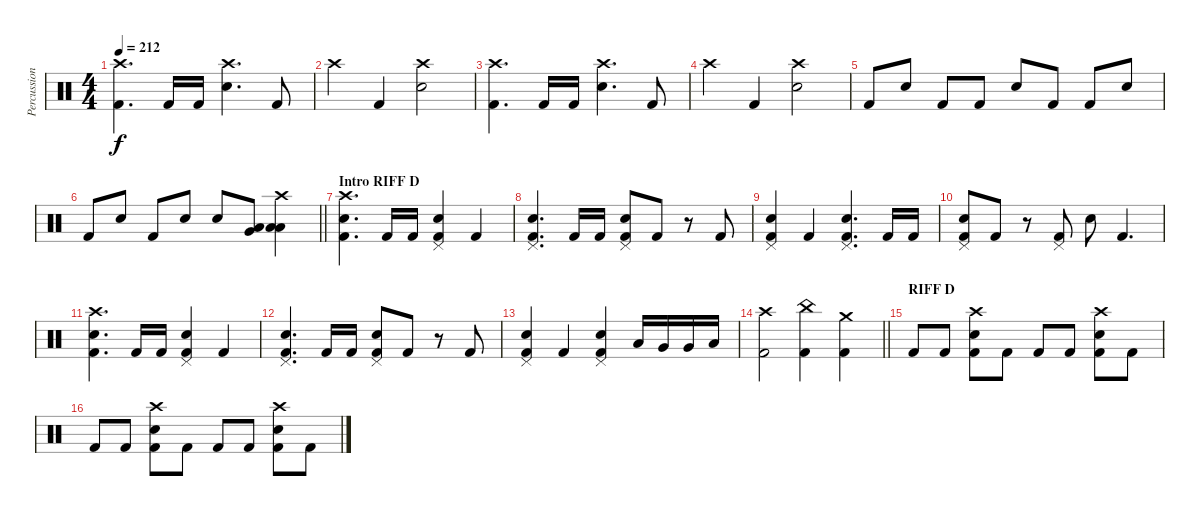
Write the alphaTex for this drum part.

\track ("Percussions" "Percussion") {instrument percussion}
\staff {score}
\articulation defaults
\ts (4 4)
\tempo 212
\clef neutral
\ks c
("Crash high (hit)" "Kick (hit) 2").4{d dy f} "Kick (hit) 2".16 "Kick (hit) 2".16 ("Crash high (hit)" "Snare (hit) 2").4{d} "Kick (hit) 2".8 |
"Crash high (hit)".4 "Kick (hit) 2".4 ("Crash high (hit)" "Snare (hit) 2").2 |
("Crash high (hit)" "Kick (hit) 2").4{d} "Kick (hit) 2".16 "Kick (hit) 2".16 ("Crash high (hit)" "Snare (hit) 2").4{d} "Kick (hit) 2".8 |
"Crash high (hit)".4 "Kick (hit) 2".4 ("Crash high (hit)" "Snare (hit) 2").2 |
"Kick (hit) 2".8 "Snare (hit) 2".8 "Kick (hit) 2".8 "Kick (hit) 2".8 "Snare (hit) 2".8 "Kick (hit) 2".8 "Kick (hit) 2".8 "Snare (hit) 2".8 |
\barLineRight lightlight "Kick (hit) 2".8 "Snare (hit) 2".8 "Kick (hit) 2".8 "Snare (hit) 2".8 "Snare (hit) 2".8
("Low Tom (hit)" "Very Low Tom (hit)").8 ("Crash high (hit)" "Low Floor Tom (hit)" "Low Floor Tom (hit)").4 |
\section ("" "Intro RIFF D")
("Crash high (hit)" "Snare (hit) 2" "Kick (hit) 2").4{d} "Kick (hit) 2".16 "Kick (hit) 2".16 ("Pedal Hi-Hat (hit)" "Snare (hit) 2" "Kick (hit) 2").4 "Kick (hit) 2".4 |
("Pedal Hi-Hat (hit)" "Snare (hit) 2" "Kick (hit) 2").4{d} "Kick (hit) 2".16 "Kick (hit) 2".16 ("Pedal Hi-Hat (hit)" "Snare (hit) 2" "Kick (hit) 2").8 "Kick (hit) 2".8 r.8 "Kick (hit) 2".8 |
("Pedal Hi-Hat (hit)" "Snare (hit) 2" "Kick (hit) 2").4 "Kick (hit) 2".4 ("Pedal Hi-Hat (hit)" "Snare (hit) 2" "Kick (hit) 2").4{d} "Kick (hit) 2".16 "Kick (hit) 2".16 |
("Pedal Hi-Hat (hit)" "Snare (hit) 2" "Kick (hit) 2").8 "Kick (hit) 2".8 r.8 ("Pedal Hi-Hat (hit)" "Kick (hit) 2").8 "Snare (hit) 2".8 "Kick (hit) 2".4{d} |
("Crash high (hit)" "Snare (hit) 2" "Kick (hit) 2").4{d} "Kick (hit) 2".16 "Kick (hit) 2".16 ("Pedal Hi-Hat (hit)" "Snare (hit) 2" "Kick (hit) 2").4 "Kick (hit) 2".4 |
("Pedal Hi-Hat (hit)" "Snare (hit) 2" "Kick (hit) 2").4{d} "Kick (hit) 2".16 "Kick (hit) 2".16 ("Pedal Hi-Hat (hit)" "Snare (hit) 2" "Kick (hit) 2").8 "Kick (hit) 2".8 r.8 "Kick (hit) 2".8 |
("Pedal Hi-Hat (hit)" "Snare (hit) 2" "Kick (hit) 2").4 "Kick (hit) 2".4 ("Pedal Hi-Hat (hit)" "Snare (hit) 2" "Kick (hit) 2").4 "Low Tom (hit)".16 "Very Low Tom (hit)".16 "Very Low Tom (hit)".16 "Low Floor Tom (hit)".16 |
\barLineRight lightlight
("Crash high (hit)" "Kick (hit) 2").2 ("China (hit)" "Kick (hit) 2").4 ("Crash medium (hit)" "Kick (hit) 2").4 |
\section ("" "RIFF D")
"Kick (hit) 2".8 "Kick (hit) 2".8 ("Crash high (hit)" "Snare (hit) 2" "Kick (hit) 2").8 "Kick (hit) 2".8 "Kick (hit) 2".8 "Kick (hit) 2".8 ("Crash high (hit)" "Snare (hit) 2" "Kick (hit) 2").8 "Kick (hit) 2".8 |
"Kick (hit) 2".8 "Kick (hit) 2".8 ("Crash high (hit)" "Snare (hit) 2" "Kick (hit) 2").8 "Kick (hit) 2".8 "Kick (hit) 2".8 "Kick (hit) 2".8 ("Crash high (hit)" "Snare (hit) 2" "Kick (hit) 2").8 "Kick (hit) 2".8
